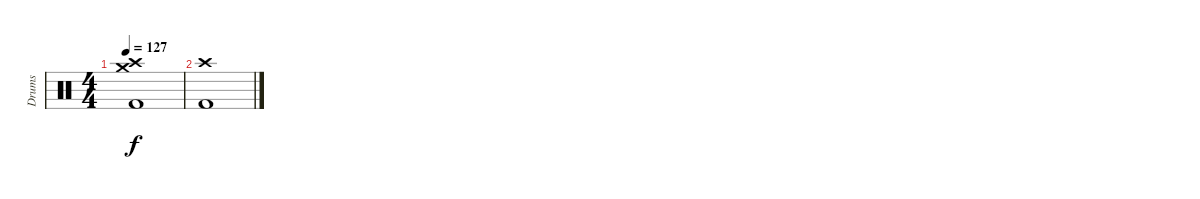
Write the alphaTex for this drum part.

\track ("Drums" "Drums") {instrument percussion}
\staff {score}
\articulation defaults
\ts (4 4)
\tempo 127
\clef neutral
\ks c
("Crash high (hit)" "Crash medium (hit)" "Kick (hit) 2").1{dy f} |
("Crash high (hit)" "Kick (hit) 2").1
